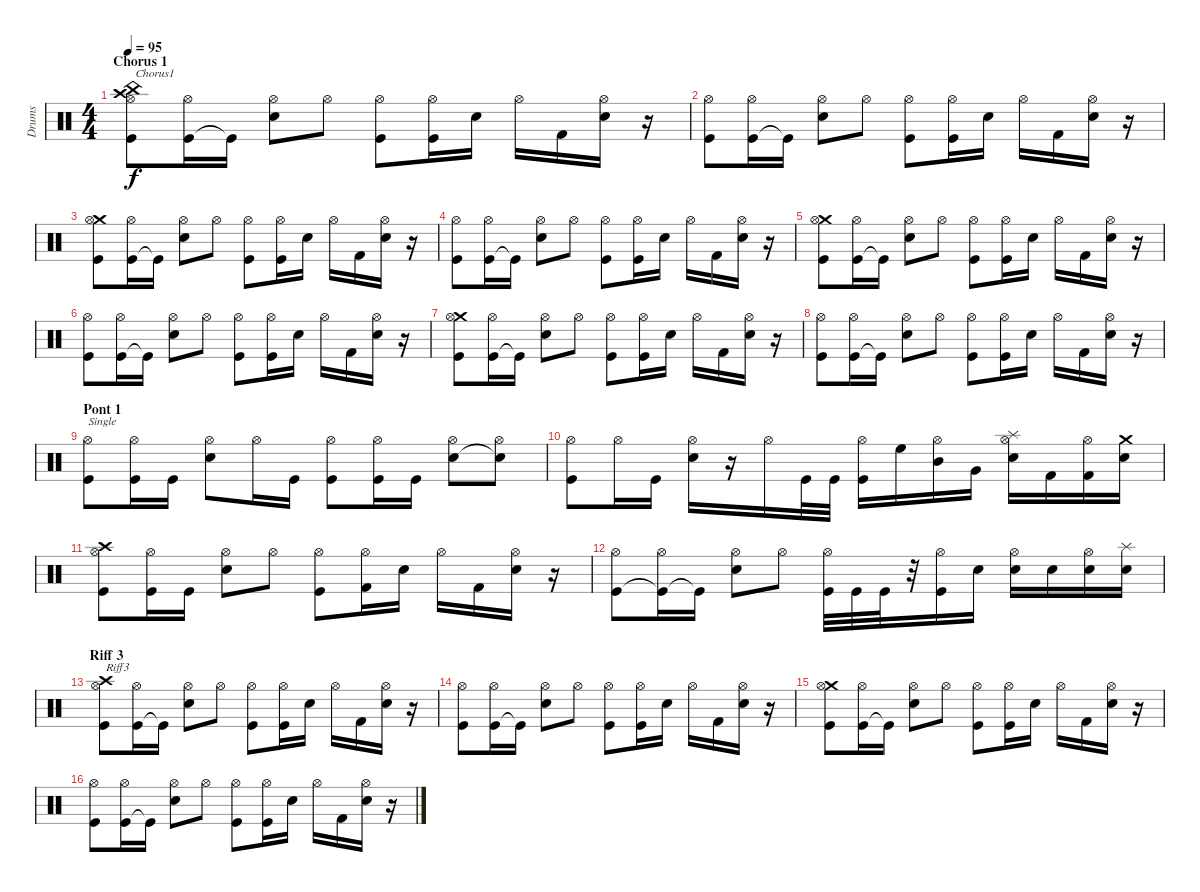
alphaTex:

\track ("Drums" "Drums") {instrument percussion}
\staff {score}
\articulation defaults
\ts (4 4)
\section ("" "Chorus 1")
\tempo 95
\clef neutral
\ks c
("China (hit)" "Crash high (hit)" "Kick (hit)" "Hi-Hat (open)").8{txt "Chorus1" dy f} ("Kick (hit)" "Hi-Hat (open)").16 "Kick (hit)"{t}.16 ("Snare (hit) 2" "Hi-Hat (open)").8 "Hi-Hat (open)".8 ("Kick (hit)" "Hi-Hat (open)").8 ("Kick (hit)" "Hi-Hat (open)").16 "Snare (hit) 2".16 "Hi-Hat (open)".16 "Kick (hit) 2".16 ("Snare (hit) 2" "Hi-Hat (open)").16 r.16 |
("Kick (hit)" "Hi-Hat (open)").8 ("Kick (hit)" "Hi-Hat (open)").16 "Kick (hit)"{t}.16 ("Snare (hit) 2" "Hi-Hat (open)").8 "Hi-Hat (open)".8 ("Kick (hit)" "Hi-Hat (open)").8 ("Kick (hit)" "Hi-Hat (open)").16 "Snare (hit) 2".16 "Hi-Hat (open)".16 "Kick (hit) 2".16 ("Snare (hit) 2" "Hi-Hat (open)").16 r.16 |
("Crash medium (hit)" "Kick (hit)" "Hi-Hat (open)").8 ("Kick (hit)" "Hi-Hat (open)").16 "Kick (hit)"{t}.16 ("Snare (hit) 2" "Hi-Hat (open)").8 "Hi-Hat (open)".8 ("Kick (hit)" "Hi-Hat (open)").8 ("Kick (hit)" "Hi-Hat (open)").16 "Snare (hit) 2".16 "Hi-Hat (open)".16 "Kick (hit) 2".16 ("Snare (hit) 2" "Hi-Hat (open)").16 r.16 |
("Kick (hit)" "Hi-Hat (open)").8 ("Kick (hit)" "Hi-Hat (open)").16 "Kick (hit)"{t}.16 ("Snare (hit) 2" "Hi-Hat (open)").8 "Hi-Hat (open)".8 ("Kick (hit)" "Hi-Hat (open)").8 ("Kick (hit)" "Hi-Hat (open)").16 "Snare (hit) 2".16 "Hi-Hat (open)".16 "Kick (hit) 2".16 ("Snare (hit) 2" "Hi-Hat (open)").16 r.16 |
("Crash medium (hit)" "Kick (hit)" "Hi-Hat (open)").8 ("Kick (hit)" "Hi-Hat (open)").16 "Kick (hit)"{t}.16 ("Snare (hit) 2" "Hi-Hat (open)").8 "Hi-Hat (open)".8 ("Kick (hit)" "Hi-Hat (open)").8 ("Kick (hit)" "Hi-Hat (open)").16 "Snare (hit) 2".16 "Hi-Hat (open)".16 "Kick (hit) 2".16 ("Snare (hit) 2" "Hi-Hat (open)").16 r.16 |
("Kick (hit)" "Hi-Hat (open)").8 ("Kick (hit)" "Hi-Hat (open)").16 "Kick (hit)"{t}.16 ("Snare (hit) 2" "Hi-Hat (open)").8 "Hi-Hat (open)".8 ("Kick (hit)" "Hi-Hat (open)").8 ("Kick (hit)" "Hi-Hat (open)").16 "Snare (hit) 2".16 "Hi-Hat (open)".16 "Kick (hit) 2".16 ("Snare (hit) 2" "Hi-Hat (open)").16 r.16 |
("Crash medium (hit)" "Kick (hit)" "Hi-Hat (open)").8 ("Kick (hit)" "Hi-Hat (open)").16 "Kick (hit)"{t}.16 ("Snare (hit) 2" "Hi-Hat (open)").8 "Hi-Hat (open)".8 ("Kick (hit)" "Hi-Hat (open)").8 ("Kick (hit)" "Hi-Hat (open)").16 "Snare (hit) 2".16 "Hi-Hat (open)".16 "Kick (hit) 2".16 ("Snare (hit) 2" "Hi-Hat (open)").16 r.16 |
("Kick (hit)" "Hi-Hat (open)").8 ("Kick (hit)" "Hi-Hat (open)").16 "Kick (hit)"{t}.16 ("Snare (hit) 2" "Hi-Hat (open)").8 "Hi-Hat (open)".8 ("Kick (hit)" "Hi-Hat (open)").8 ("Kick (hit)" "Hi-Hat (open)").16 "Snare (hit) 2".16 "Hi-Hat (open)".16 "Kick (hit) 2".16 ("Snare (hit) 2" "Hi-Hat (open)").16 r.16 |
\section ("" "Pont 1")
("Kick (hit)" "Hi-Hat (open)").8{txt "Single"} ("Kick (hit)" "Hi-Hat (open)").16 "Kick (hit)".16 ("Snare (hit) 2" "Hi-Hat (open)").8 "Hi-Hat (open)".16 "Kick (hit)".16 ("Kick (hit)" "Hi-Hat (open)").8 ("Kick (hit)" "Hi-Hat (open)").16 "Kick (hit)".16 ("Snare (hit) 2" "Hi-Hat (open)").8 ("Snare (hit)"{t} "Hi-Hat (open)").8 |
("Kick (hit)" "Hi-Hat (open)").8 "Hi-Hat (open)".16 "Kick (hit)".16 ("Snare (hit) 2" "Hi-Hat (open)").16 r.16 "Hi-Hat (open)".16 "Kick (hit)".32 "Kick (hit)".32 ("Kick (hit)" "Hi-Hat (open)").16 "High Floor Tom (hit)".16 ("Mid Tom (hit)" "Hi-Hat (open)").16 "Very Low Tom (hit)".16 ("Splash (hit)" "Snare (hit) 2" "Hi-Hat (open)").16 "Kick (hit) 2".16 ("Kick (hit) 2" "Hi-Hat (open)").16 ("Crash medium (hit)" "Snare (hit) 2").16 |
("Crash high (hit)" "Kick (hit)" "Hi-Hat (open)").8 ("Kick (hit)" "Hi-Hat (open)").16 "Kick (hit)".16 ("Snare (hit) 2" "Hi-Hat (open)").8 "Hi-Hat (open)".8 ("Kick (hit)" "Hi-Hat (open)").8 ("Kick (hit) 2" "Hi-Hat (open)").16 "Snare (hit) 2".16 "Hi-Hat (open)".16 "Kick (hit) 2".16 ("Snare (hit) 2" "Hi-Hat (open)").16 r.16 |
("Kick (hit)" "Hi-Hat (open)").8 ("Kick (hit)"{t} "Hi-Hat (open)").16 "Kick (hit)"{t}.16 ("Snare (hit) 2" "Hi-Hat (open)").8 "Hi-Hat (open)".8 ("Kick (hit)" "Hi-Hat (open)").32 "Kick (hit)".32 "Kick (hit)".32 r.32 ("Kick (hit)" "Hi-Hat (open)").16 "Snare (hit) 2".16 ("Snare (hit) 2" "Hi-Hat (open)").16 "Snare (hit) 2".16 ("Snare (hit) 2" "Hi-Hat (open)").16 ("Splash (hit)" "Snare (hit) 2").16 |
\section ("" "Riff 3")
("Crash high (hit)" "Kick (hit)" "Hi-Hat (open)").8{txt "Riff3"} ("Kick (hit)" "Hi-Hat (open)").16 "Kick (hit)"{t}.16 ("Snare (hit) 2" "Hi-Hat (open)").8 "Hi-Hat (open)".8 ("Kick (hit)" "Hi-Hat (open)").8 ("Kick (hit)" "Hi-Hat (open)").16 "Snare (hit) 2".16 "Hi-Hat (open)".16 "Kick (hit) 2".16 ("Snare (hit) 2" "Hi-Hat (open)").16 r.16 |
("Kick (hit)" "Hi-Hat (open)").8 ("Kick (hit)" "Hi-Hat (open)").16 "Kick (hit)"{t}.16 ("Snare (hit) 2" "Hi-Hat (open)").8 "Hi-Hat (open)".8 ("Kick (hit)" "Hi-Hat (open)").8 ("Kick (hit)" "Hi-Hat (open)").16 "Snare (hit) 2".16 "Hi-Hat (open)".16 "Kick (hit) 2".16 ("Snare (hit) 2" "Hi-Hat (open)").16 r.16 |
("Crash medium (hit)" "Kick (hit)" "Hi-Hat (open)").8 ("Kick (hit)" "Hi-Hat (open)").16 "Kick (hit)"{t}.16 ("Snare (hit) 2" "Hi-Hat (open)").8 "Hi-Hat (open)".8 ("Kick (hit)" "Hi-Hat (open)").8 ("Kick (hit)" "Hi-Hat (open)").16 "Snare (hit) 2".16 "Hi-Hat (open)".16 "Kick (hit) 2".16 ("Snare (hit) 2" "Hi-Hat (open)").16 r.16 |
("Kick (hit)" "Hi-Hat (open)").8 ("Kick (hit)" "Hi-Hat (open)").16 "Kick (hit)"{t}.16 ("Snare (hit) 2" "Hi-Hat (open)").8 "Hi-Hat (open)".8 ("Kick (hit)" "Hi-Hat (open)").8 ("Kick (hit)" "Hi-Hat (open)").16 "Snare (hit) 2".16 "Hi-Hat (open)".16 "Kick (hit) 2".16 ("Snare (hit) 2" "Hi-Hat (open)").16 r.16
